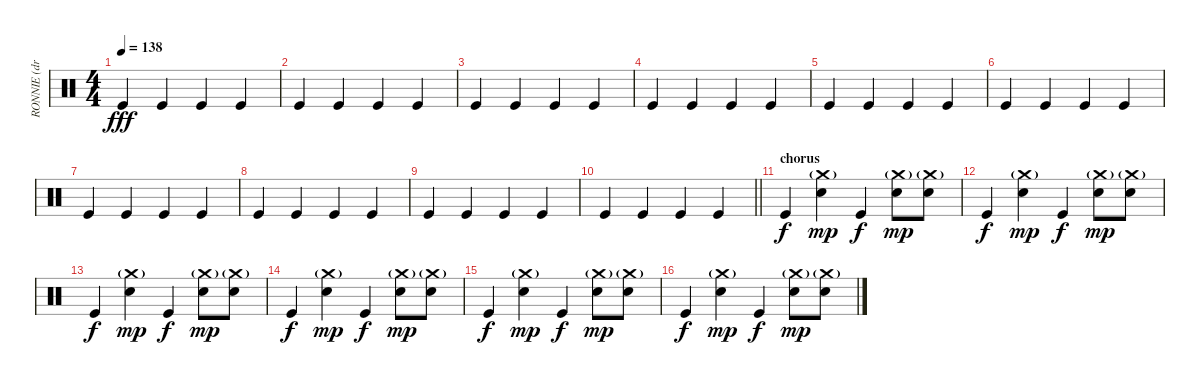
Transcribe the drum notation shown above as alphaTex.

\track ("RONNIE (drums)" "RONNIE (dr") {instrument percussion}
\staff {score}
\articulation defaults
\ts (4 4)
\tempo 138
\clef neutral
\ks c "Kick (hit)".4{dy fff} "Kick (hit)".4 "Kick (hit)".4 "Kick (hit)".4
|
"Kick (hit)".4 "Kick (hit)".4 "Kick (hit)".4 "Kick (hit)".4 |
"Kick (hit)".4 "Kick (hit)".4 "Kick (hit)".4 "Kick (hit)".4 |
"Kick (hit)".4 "Kick (hit)".4 "Kick (hit)".4 "Kick (hit)".4 |
"Kick (hit)".4 "Kick (hit)".4 "Kick (hit)".4 "Kick (hit)".4 |
"Kick (hit)".4 "Kick (hit)".4 "Kick (hit)".4 "Kick (hit)".4 |
"Kick (hit)".4 "Kick (hit)".4 "Kick (hit)".4 "Kick (hit)".4 |
"Kick (hit)".4 "Kick (hit)".4 "Kick (hit)".4 "Kick (hit)".4 |
"Kick (hit)".4 "Kick (hit)".4 "Kick (hit)".4 "Kick (hit)".4 |
\barLineRight lightlight "Kick (hit)".4 "Kick (hit)".4 "Kick (hit)".4 "Kick (hit)".4
|
\section ("" "chorus")
"Kick (hit)".4{dy f} ("Electric Snare (hit)" "Crash medium (hit)"{g}).4{dy mp} "Kick (hit)".4{dy f} ("Electric Snare (hit)" "Crash medium (hit)"{g}).8{dy mp} ("Electric Snare (hit)" "Crash medium (hit)"{g}).8 |
"Kick (hit)".4{dy f} ("Electric Snare (hit)" "Crash medium (hit)"{g}).4{dy mp} "Kick (hit)".4{dy f} ("Electric Snare (hit)" "Crash medium (hit)"{g}).8{dy mp} ("Electric Snare (hit)" "Crash medium (hit)"{g}).8 |
"Kick (hit)".4{dy f} ("Electric Snare (hit)" "Crash medium (hit)"{g}).4{dy mp} "Kick (hit)".4{dy f} ("Electric Snare (hit)" "Crash medium (hit)"{g}).8{dy mp} ("Electric Snare (hit)" "Crash medium (hit)"{g}).8 |
"Kick (hit)".4{dy f} ("Electric Snare (hit)" "Crash medium (hit)"{g}).4{dy mp} "Kick (hit)".4{dy f} ("Electric Snare (hit)" "Crash medium (hit)"{g}).8{dy mp} ("Electric Snare (hit)" "Crash medium (hit)"{g}).8 |
"Kick (hit)".4{dy f} ("Electric Snare (hit)" "Crash medium (hit)"{g}).4{dy mp} "Kick (hit)".4{dy f} ("Electric Snare (hit)" "Crash medium (hit)"{g}).8{dy mp} ("Electric Snare (hit)" "Crash medium (hit)"{g}).8 |
"Kick (hit)".4{dy f} ("Electric Snare (hit)" "Crash medium (hit)"{g}).4{dy mp} "Kick (hit)".4{dy f} ("Electric Snare (hit)" "Crash medium (hit)"{g}).8{dy mp} ("Electric Snare (hit)" "Crash medium (hit)"{g}).8
